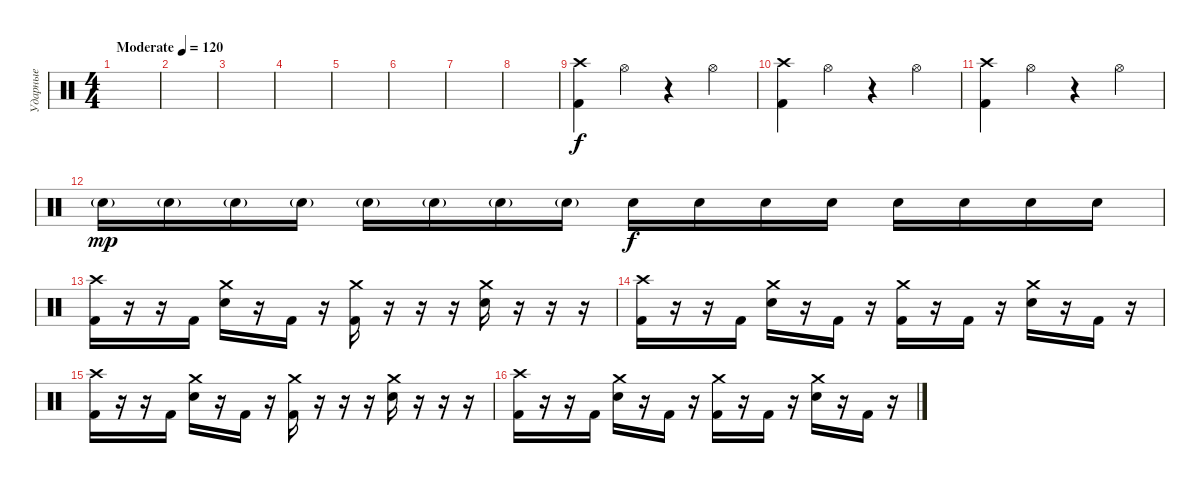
\track ("Ударные" "Ударные") {instrument percussion}
\staff
\articulation defaults
\ts (4 4)
\tempo (120 "Moderate")
\clef neutral
\ks c
|
|
|
|
|
|
|
|
("Crash high (hit)" "Kick (hit) 2").4 "Hi-Hat (open)".4 r.4 "Hi-Hat (open)".4 |
("Crash high (hit)" "Kick (hit) 2").4 "Hi-Hat (open)".4 r.4 "Hi-Hat (open)".4 |
("Crash high (hit)" "Kick (hit) 2").4 "Hi-Hat (open)".4 r.4 "Hi-Hat (open)".4 |
"Electric Snare (hit)"{g}.16{dy mp} "Electric Snare (hit)"{g}.16 "Electric Snare (hit)"{g}.16 "Electric Snare (hit)"{g}.16 "Electric Snare (hit)"{g}.16 "Electric Snare (hit)"{g}.16 "Electric Snare (hit)"{g}.16 "Electric Snare (hit)"{g}.16 "Electric Snare (hit)".16{dy f} "Electric Snare (hit)".16 "Electric Snare (hit)".16 "Electric Snare (hit)".16 "Electric Snare (hit)".16 "Electric Snare (hit)".16 "Electric Snare (hit)".16 "Electric Snare (hit)".16 |
("Crash high (hit)" "Kick (hit) 2").16 r.16 r.16 "Kick (hit) 2".16 ("Crash medium (hit)" "Electric Snare (hit)").16 r.16 "Kick (hit) 2".16 r.16 ("Crash medium (hit)" "Kick (hit) 2").16 r.16 r.16 r.16 ("Crash medium (hit)" "Electric Snare (hit)").16 r.16 r.16 r.16 |
("Crash high (hit)" "Kick (hit) 2").16 r.16 r.16 "Kick (hit) 2".16 ("Crash medium (hit)" "Electric Snare (hit)").16 r.16 "Kick (hit) 2".16 r.16 ("Crash medium (hit)" "Kick (hit) 2").16 r.16 "Kick (hit) 2".16 r.16 ("Crash medium (hit)" "Electric Snare (hit)").16 r.16 "Kick (hit) 2".16 r.16 |
("Crash high (hit)" "Kick (hit) 2").16 r.16 r.16 "Kick (hit) 2".16 ("Crash medium (hit)" "Electric Snare (hit)").16 r.16 "Kick (hit) 2".16 r.16 ("Crash medium (hit)" "Kick (hit) 2").16 r.16 r.16 r.16 ("Crash medium (hit)" "Electric Snare (hit)").16 r.16 r.16 r.16 |
("Crash high (hit)" "Kick (hit) 2").16 r.16 r.16 "Kick (hit) 2".16 ("Crash medium (hit)" "Electric Snare (hit)").16 r.16 "Kick (hit) 2".16 r.16 ("Crash medium (hit)" "Kick (hit) 2").16 r.16 "Kick (hit) 2".16 r.16 ("Crash medium (hit)" "Electric Snare (hit)").16 r.16 "Kick (hit) 2".16 r.16
